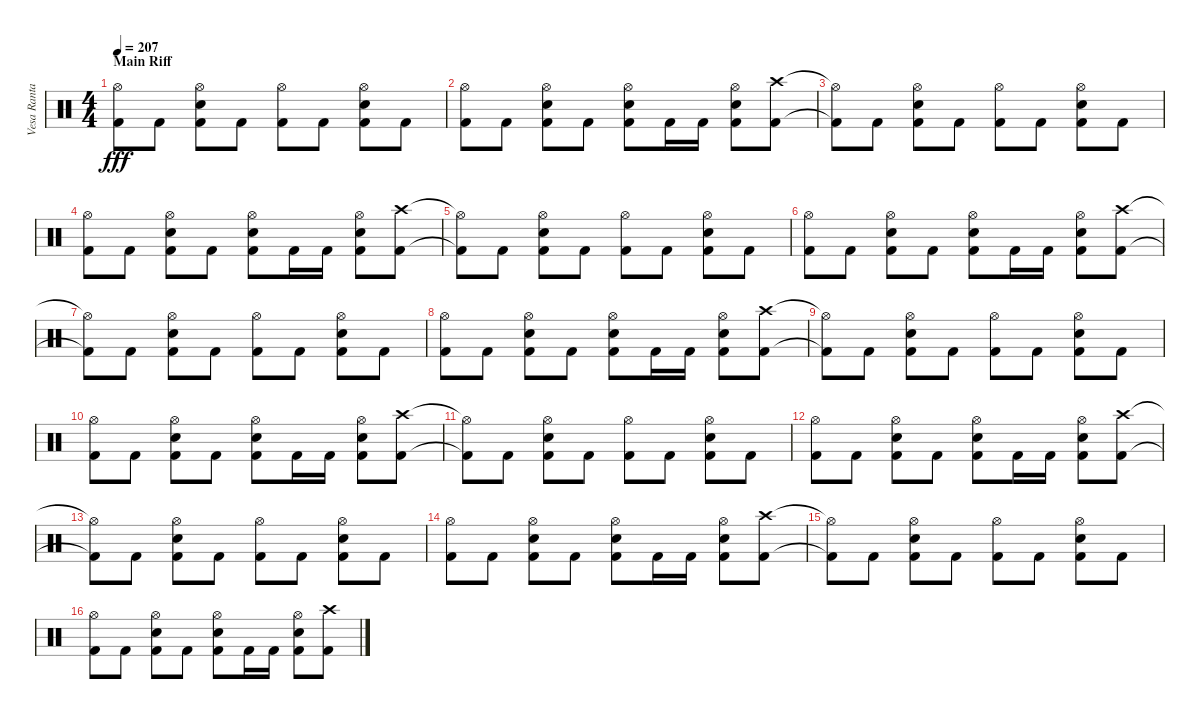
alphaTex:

\track ("Vesa Ranta" "Vesa Ranta") {instrument percussion}
\staff {score}
\articulation defaults
\ts (4 4)
\section ("" "Main Riff")
\tempo 207
\clef neutral
\ks c
("Hi-Hat (open)"{t} "Kick (hit) 2"{t}).8{dy fff} "Kick (hit) 2".8 ("Hi-Hat (open)" "Snare (hit) 2" "Kick (hit) 2").8 "Kick (hit) 2".8 ("Hi-Hat (open)" "Kick (hit) 2").8 "Kick (hit) 2".8 ("Hi-Hat (open)" "Snare (hit) 2" "Kick (hit) 2").8 "Kick (hit) 2".8 |
("Hi-Hat (open)" "Kick (hit) 2").8 "Kick (hit) 2".8 ("Hi-Hat (open)" "Snare (hit) 2" "Kick (hit) 2").8 "Kick (hit) 2".8 ("Hi-Hat (open)" "Snare (hit) 2" "Kick (hit) 2").8 "Kick (hit) 2".16 "Kick (hit) 2".16 ("Hi-Hat (open)" "Snare (hit) 2" "Kick (hit) 2").8 ("Crash high (hit)" "Kick (hit) 2").8 |
("Hi-Hat (open)"{t} "Kick (hit) 2"{t}).8 "Kick (hit) 2".8 ("Hi-Hat (open)" "Snare (hit) 2" "Kick (hit) 2").8 "Kick (hit) 2".8 ("Hi-Hat (open)" "Kick (hit) 2").8 "Kick (hit) 2".8 ("Hi-Hat (open)" "Snare (hit) 2" "Kick (hit) 2").8 "Kick (hit) 2".8 |
("Hi-Hat (open)" "Kick (hit) 2").8 "Kick (hit) 2".8 ("Hi-Hat (open)" "Snare (hit) 2" "Kick (hit) 2").8 "Kick (hit) 2".8 ("Hi-Hat (open)" "Snare (hit) 2" "Kick (hit) 2").8 "Kick (hit) 2".16 "Kick (hit) 2".16 ("Hi-Hat (open)" "Snare (hit) 2" "Kick (hit) 2").8 ("Crash high (hit)" "Kick (hit) 2").8 |
("Hi-Hat (open)"{t} "Kick (hit) 2"{t}).8 "Kick (hit) 2".8 ("Hi-Hat (open)" "Snare (hit) 2" "Kick (hit) 2").8 "Kick (hit) 2".8 ("Hi-Hat (open)" "Kick (hit) 2").8 "Kick (hit) 2".8 ("Hi-Hat (open)" "Snare (hit) 2" "Kick (hit) 2").8 "Kick (hit) 2".8 |
("Hi-Hat (open)" "Kick (hit) 2").8 "Kick (hit) 2".8 ("Hi-Hat (open)" "Snare (hit) 2" "Kick (hit) 2").8 "Kick (hit) 2".8 ("Hi-Hat (open)" "Snare (hit) 2" "Kick (hit) 2").8 "Kick (hit) 2".16 "Kick (hit) 2".16 ("Hi-Hat (open)" "Snare (hit) 2" "Kick (hit) 2").8 ("Crash high (hit)" "Kick (hit) 2").8 |
("Hi-Hat (open)"{t} "Kick (hit) 2"{t}).8 "Kick (hit) 2".8 ("Hi-Hat (open)" "Snare (hit) 2" "Kick (hit) 2").8 "Kick (hit) 2".8 ("Hi-Hat (open)" "Kick (hit) 2").8 "Kick (hit) 2".8 ("Hi-Hat (open)" "Snare (hit) 2" "Kick (hit) 2").8 "Kick (hit) 2".8 |
("Hi-Hat (open)" "Kick (hit) 2").8 "Kick (hit) 2".8 ("Hi-Hat (open)" "Snare (hit) 2" "Kick (hit) 2").8 "Kick (hit) 2".8 ("Hi-Hat (open)" "Snare (hit) 2" "Kick (hit) 2").8 "Kick (hit) 2".16 "Kick (hit) 2".16 ("Hi-Hat (open)" "Snare (hit) 2" "Kick (hit) 2").8 ("Crash high (hit)" "Kick (hit) 2").8 |
("Hi-Hat (open)"{t} "Kick (hit) 2"{t}).8 "Kick (hit) 2".8 ("Hi-Hat (open)" "Snare (hit) 2" "Kick (hit) 2").8 "Kick (hit) 2".8 ("Hi-Hat (open)" "Kick (hit) 2").8 "Kick (hit) 2".8 ("Hi-Hat (open)" "Snare (hit) 2" "Kick (hit) 2").8 "Kick (hit) 2".8 |
("Hi-Hat (open)" "Kick (hit) 2").8 "Kick (hit) 2".8 ("Hi-Hat (open)" "Snare (hit) 2" "Kick (hit) 2").8 "Kick (hit) 2".8 ("Hi-Hat (open)" "Snare (hit) 2" "Kick (hit) 2").8 "Kick (hit) 2".16 "Kick (hit) 2".16 ("Hi-Hat (open)" "Snare (hit) 2" "Kick (hit) 2").8 ("Crash high (hit)" "Kick (hit) 2").8 |
("Hi-Hat (open)"{t} "Kick (hit) 2"{t}).8 "Kick (hit) 2".8 ("Hi-Hat (open)" "Snare (hit) 2" "Kick (hit) 2").8 "Kick (hit) 2".8 ("Hi-Hat (open)" "Kick (hit) 2").8 "Kick (hit) 2".8 ("Hi-Hat (open)" "Snare (hit) 2" "Kick (hit) 2").8 "Kick (hit) 2".8 |
("Hi-Hat (open)" "Kick (hit) 2").8 "Kick (hit) 2".8 ("Hi-Hat (open)" "Snare (hit) 2" "Kick (hit) 2").8 "Kick (hit) 2".8 ("Hi-Hat (open)" "Snare (hit) 2" "Kick (hit) 2").8 "Kick (hit) 2".16 "Kick (hit) 2".16 ("Hi-Hat (open)" "Snare (hit) 2" "Kick (hit) 2").8 ("Crash high (hit)" "Kick (hit) 2").8 |
("Hi-Hat (open)"{t} "Kick (hit) 2"{t}).8 "Kick (hit) 2".8 ("Hi-Hat (open)" "Snare (hit) 2" "Kick (hit) 2").8 "Kick (hit) 2".8 ("Hi-Hat (open)" "Kick (hit) 2").8 "Kick (hit) 2".8 ("Hi-Hat (open)" "Snare (hit) 2" "Kick (hit) 2").8 "Kick (hit) 2".8 |
("Hi-Hat (open)" "Kick (hit) 2").8 "Kick (hit) 2".8 ("Hi-Hat (open)" "Snare (hit) 2" "Kick (hit) 2").8 "Kick (hit) 2".8 ("Hi-Hat (open)" "Snare (hit) 2" "Kick (hit) 2").8 "Kick (hit) 2".16 "Kick (hit) 2".16 ("Hi-Hat (open)" "Snare (hit) 2" "Kick (hit) 2").8 ("Crash high (hit)" "Kick (hit) 2").8 |
("Hi-Hat (open)"{t} "Kick (hit) 2"{t}).8 "Kick (hit) 2".8 ("Hi-Hat (open)" "Snare (hit) 2" "Kick (hit) 2").8 "Kick (hit) 2".8 ("Hi-Hat (open)" "Kick (hit) 2").8 "Kick (hit) 2".8 ("Hi-Hat (open)" "Snare (hit) 2" "Kick (hit) 2").8 "Kick (hit) 2".8 |
("Hi-Hat (open)" "Kick (hit) 2").8 "Kick (hit) 2".8 ("Hi-Hat (open)" "Snare (hit) 2" "Kick (hit) 2").8 "Kick (hit) 2".8 ("Hi-Hat (open)" "Snare (hit) 2" "Kick (hit) 2").8 "Kick (hit) 2".16 "Kick (hit) 2".16 ("Hi-Hat (open)" "Snare (hit) 2" "Kick (hit) 2").8 ("Crash high (hit)" "Kick (hit) 2").8
